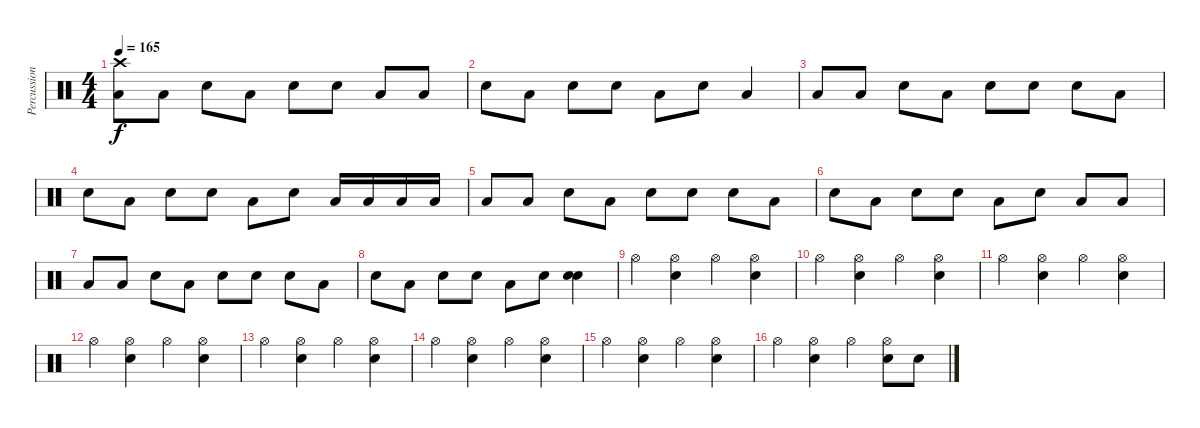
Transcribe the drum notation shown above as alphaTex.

\track ("Percussion" "Percussion") {instrument percussion}
\staff {score}
\articulation defaults
\ts (4 4)
\tempo 165
\clef neutral
\ks c
("Low Tom (hit)" "Crash high (hit)").8{dy f} "Low Tom (hit)".8 "Electric Snare (hit)".8 "Low Tom (hit)".8 "Electric Snare (hit)".8 "Electric Snare (hit)".8 "Low Tom (hit)".8 "Low Tom (hit)".8 |
"Electric Snare (hit)".8 "Low Tom (hit)".8 "Electric Snare (hit)".8 "Electric Snare (hit)".8 "Low Tom (hit)".8 "Electric Snare (hit)".8 "Low Tom (hit)".4 |
"Low Tom (hit)".8 "Low Tom (hit)".8 "Electric Snare (hit)".8 "Low Tom (hit)".8 "Electric Snare (hit)".8 "Electric Snare (hit)".8 "Electric Snare (hit)".8 "Low Tom (hit)".8 |
"Electric Snare (hit)".8 "Low Tom (hit)".8 "Electric Snare (hit)".8 "Electric Snare (hit)".8 "Low Tom (hit)".8 "Electric Snare (hit)".8 "Low Tom (hit)".16 "Low Tom (hit)".16 "Low Tom (hit)".16 "Low Tom (hit)".16 |
"Low Tom (hit)".8 "Low Tom (hit)".8 "Electric Snare (hit)".8 "Low Tom (hit)".8 "Electric Snare (hit)".8 "Electric Snare (hit)".8 "Electric Snare (hit)".8 "Low Tom (hit)".8 |
"Electric Snare (hit)".8 "Low Tom (hit)".8 "Electric Snare (hit)".8 "Electric Snare (hit)".8 "Low Tom (hit)".8 "Electric Snare (hit)".8 "Low Tom (hit)".8 "Low Tom (hit)".8 |
"Low Tom (hit)".8 "Low Tom (hit)".8 "Electric Snare (hit)".8 "Low Tom (hit)".8 "Electric Snare (hit)".8 "Electric Snare (hit)".8 "Electric Snare (hit)".8 "Low Tom (hit)".8 |
"Electric Snare (hit)".8 "Low Tom (hit)".8 "Electric Snare (hit)".8 "Electric Snare (hit)".8 "Low Tom (hit)".8 "Electric Snare (hit)".8 ("Electric Snare (hit)" "Electric Snare (hit)").4 |
"Hi-Hat (open)".4 ("Electric Snare (hit)" "Hi-Hat (open)").4 "Hi-Hat (open)".4 ("Electric Snare (hit)" "Hi-Hat (open)").4 |
"Hi-Hat (open)".4 ("Electric Snare (hit)" "Hi-Hat (open)").4 "Hi-Hat (open)".4 ("Electric Snare (hit)" "Hi-Hat (open)").4 |
"Hi-Hat (open)".4 ("Electric Snare (hit)" "Hi-Hat (open)").4 "Hi-Hat (open)".4 ("Electric Snare (hit)" "Hi-Hat (open)").4 |
"Hi-Hat (open)".4 ("Electric Snare (hit)" "Hi-Hat (open)").4 "Hi-Hat (open)".4 ("Electric Snare (hit)" "Hi-Hat (open)").4 |
"Hi-Hat (open)".4 ("Electric Snare (hit)" "Hi-Hat (open)").4 "Hi-Hat (open)".4 ("Electric Snare (hit)" "Hi-Hat (open)").4 |
"Hi-Hat (open)".4 ("Electric Snare (hit)" "Hi-Hat (open)").4 "Hi-Hat (open)".4 ("Electric Snare (hit)" "Hi-Hat (open)").4 |
"Hi-Hat (open)".4 ("Electric Snare (hit)" "Hi-Hat (open)").4 "Hi-Hat (open)".4 ("Electric Snare (hit)" "Hi-Hat (open)").4 |
"Hi-Hat (open)".4 ("Electric Snare (hit)" "Hi-Hat (open)").4 "Hi-Hat (open)".4 ("Electric Snare (hit)" "Hi-Hat (open)").8 "Electric Snare (hit)".8
